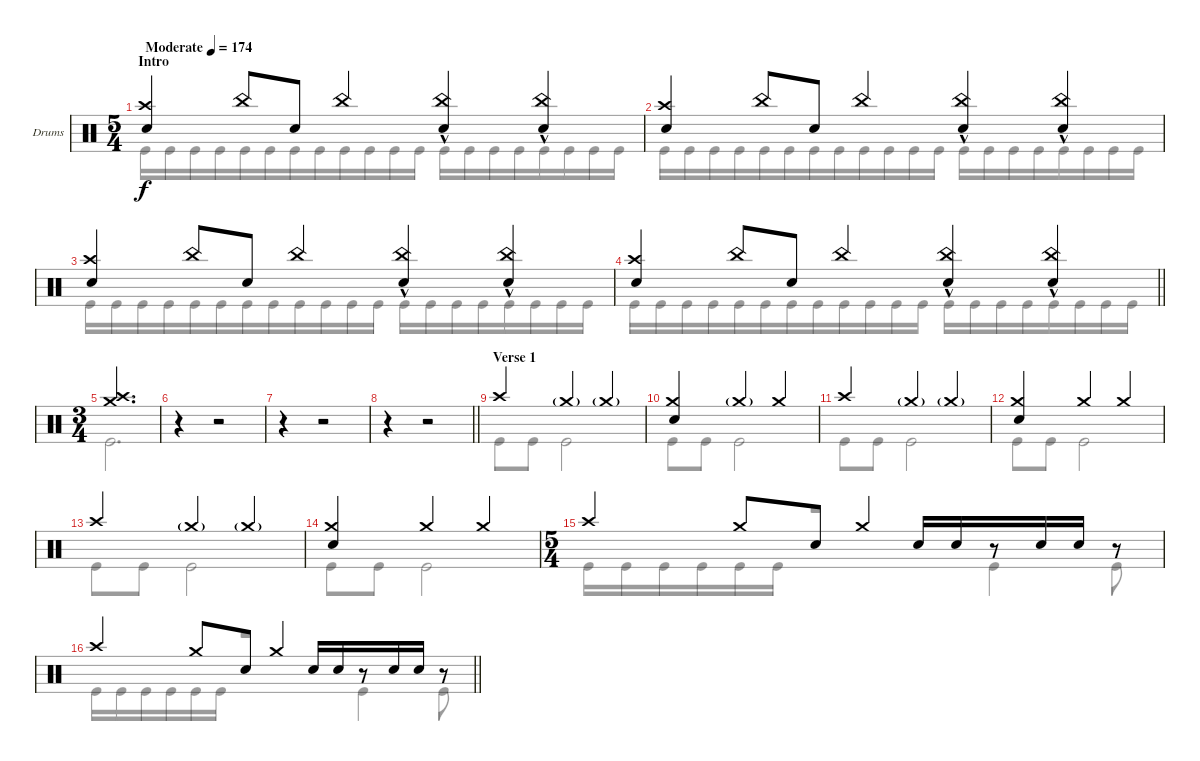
\bracketExtendMode groupsimilarinstruments
\firstSystemTrackNameOrientation horizontal
\otherSystemsTrackNameOrientation horizontal
\track ("Drumkit" "Drums") {instrument percussion}
\staff {score}
\articulation defaults
\voice
\ts (5 4)
\beaming (8 6 4)
\section ("" "Intro")
\tempo (174 "Moderate")
\clef neutral
\ks c
("Crash high (hit)" "Snare (hit) 2").4{dy f} "China (hit)".8 "Snare (hit) 2".8 "China (hit)".4 ("China (hit)"{hac} "Snare (hit) 2").4 ("China (hit)"{hac} "Snare (hit) 2").4 |
("Crash high (hit)" "Snare (hit) 2").4 "China (hit)".8 "Snare (hit) 2".8 "China (hit)".4 ("China (hit)"{hac} "Snare (hit) 2").4 ("China (hit)"{hac} "Snare (hit) 2").4 |
("Crash high (hit)" "Snare (hit) 2").4 "China (hit)".8 "Snare (hit) 2".8 "China (hit)".4 ("China (hit)"{hac} "Snare (hit) 2").4 ("China (hit)"{hac} "Snare (hit) 2").4 |
\barLineRight lightlight
("Crash high (hit)" "Snare (hit) 2").4 "China (hit)".8 "Snare (hit) 2".8 "China (hit)".4 ("China (hit)"{hac} "Snare (hit) 2").4 ("China (hit)"{hac} "Snare (hit) 2").4 |
\ts (3 4)
\beaming (8 2 2 2)
\section ("" "")
("Crash high (hit)" "Crash medium (hit)").2{d} |
r.4 r.2 |
r.4 r.2 |
\barLineRight lightlight
r.4 r.2 |
\section ("" "Verse 1")
"Crash high (hit)".4 "Crash medium (hit)"{g}.4 "Crash medium (hit)"{g}.4 |
("Crash medium (hit)" "Snare (hit) 2").4 "Crash medium (hit)"{g}.4 "Crash medium (hit)".4 |
"Crash high (hit)".4 "Crash medium (hit)"{g}.4 "Crash medium (hit)"{g}.4 |
("Crash medium (hit)" "Snare (hit) 2").4 "Crash medium (hit)".4 "Crash medium (hit)".4 |
"Crash high (hit)".4 "Crash medium (hit)"{g}.4 "Crash medium (hit)"{g}.4 |
("Crash medium (hit)" "Snare (hit) 2").4 "Crash medium (hit)".4 "Crash medium (hit)".4 |
\ts (5 4)
\beaming (8 6 4)
"Crash high (hit)".4 "Crash medium (hit)".8 "Snare (hit) 2".8 "Crash medium (hit)".4 "Snare (hit) 2".16 "Snare (hit) 2".16 r.8 "Snare (hit) 2".16 "Snare (hit) 2".16 r.8 |
\barLineRight lightlight "Crash high (hit)".4 "Crash medium (hit)".8 "Snare (hit) 2".8 "Crash medium (hit)".4 "Snare (hit) 2".16 "Snare (hit) 2".16
r.8 "Snare (hit) 2".16 "Snare (hit) 2".16 r.8
\voice
\clef neutral
\ottava regular
\simile none
\ks c "Kick (hit)".16{dy f} "Kick (hit)".16 "Kick (hit)".16 "Kick (hit)".16 "Kick (hit)".16 "Kick (hit)".16 "Kick (hit)".16 "Kick (hit)".16 "Kick (hit)".16 "Kick (hit)".16 "Kick (hit)".16 "Kick (hit)".16 "Kick (hit)".16 "Kick (hit)".16 "Kick (hit)".16 "Kick (hit)".16 "Kick (hit)".16 "Kick (hit)".16 "Kick (hit)".16 "Kick (hit)".16
|
"Kick (hit)".16 "Kick (hit)".16 "Kick (hit)".16 "Kick (hit)".16 "Kick (hit)".16 "Kick (hit)".16 "Kick (hit)".16 "Kick (hit)".16 "Kick (hit)".16 "Kick (hit)".16 "Kick (hit)".16 "Kick (hit)".16 "Kick (hit)".16 "Kick (hit)".16 "Kick (hit)".16 "Kick (hit)".16 "Kick (hit)".16 "Kick (hit)".16 "Kick (hit)".16 "Kick (hit)".16 |
"Kick (hit)".16 "Kick (hit)".16 "Kick (hit)".16 "Kick (hit)".16 "Kick (hit)".16 "Kick (hit)".16 "Kick (hit)".16 "Kick (hit)".16 "Kick (hit)".16 "Kick (hit)".16 "Kick (hit)".16 "Kick (hit)".16 "Kick (hit)".16 "Kick (hit)".16 "Kick (hit)".16 "Kick (hit)".16 "Kick (hit)".16 "Kick (hit)".16 "Kick (hit)".16 "Kick (hit)".16 |
\barLineRight lightlight "Kick (hit)".16 "Kick (hit)".16 "Kick (hit)".16 "Kick (hit)".16 "Kick (hit)".16 "Kick (hit)".16 "Kick (hit)".16 "Kick (hit)".16 "Kick (hit)".16 "Kick (hit)".16 "Kick (hit)".16 "Kick (hit)".16 "Kick (hit)".16 "Kick (hit)".16 "Kick (hit)".16 "Kick (hit)".16 "Kick (hit)".16 "Kick (hit)".16 "Kick (hit)".16 "Kick (hit)".16
|
"Kick (hit)".2{d} |
|
|
\barLineRight lightlight
|
"Kick (hit)".8 "Kick (hit)".8 "Kick (hit)".2 |
"Kick (hit)".8 "Kick (hit)".8 "Kick (hit)".2 |
"Kick (hit)".8 "Kick (hit)".8 "Kick (hit)".2 |
"Kick (hit)".8 "Kick (hit)".8 "Kick (hit)".2 |
"Kick (hit)".8 "Kick (hit)".8 "Kick (hit)".2 |
"Kick (hit)".8 "Kick (hit)".8 "Kick (hit)".2 |
"Kick (hit)".16 "Kick (hit)".16 "Kick (hit)".16 "Kick (hit)".16 "Kick (hit)".16 "Kick (hit)".16 r.2 "Kick (hit)".4 "Kick (hit)".8 |
\barLineRight lightlight "Kick (hit)".16 "Kick (hit)".16 "Kick (hit)".16 "Kick (hit)".16 "Kick (hit)".16 "Kick (hit)".16
r.2 "Kick (hit)".4 "Kick (hit)".8
